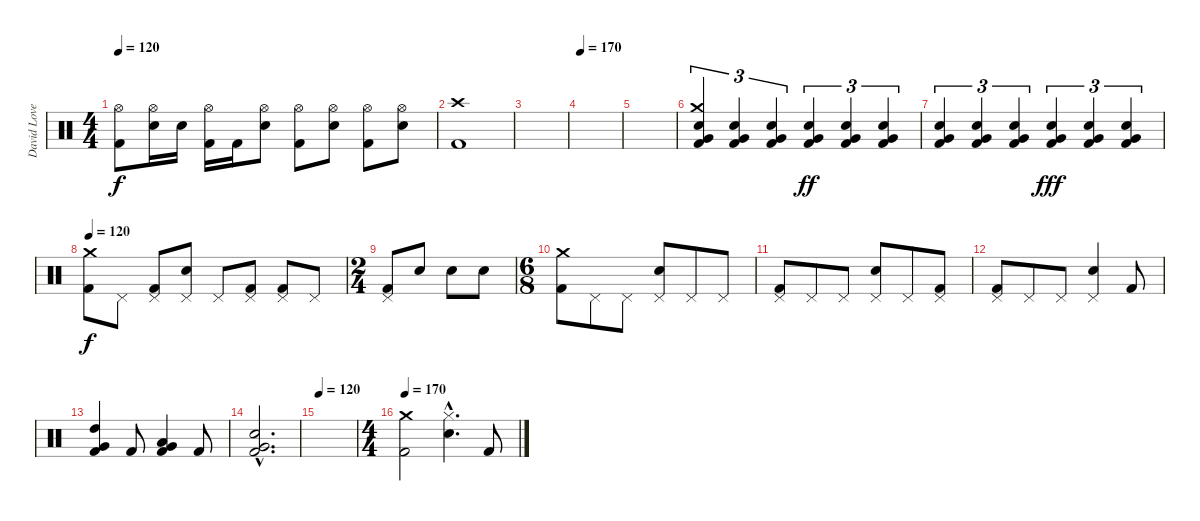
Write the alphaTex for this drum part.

\track ("David Lovering (Drums)" "David Love") {instrument percussion}
\staff {score}
\articulation defaults
\ts (4 4)
\tempo 120
\clef neutral
\ks c
("Hi-Hat (open)" "Kick (hit) 2").8{dy f} ("Hi-Hat (open)" "Electric Snare (hit)").16 "Electric Snare (hit)".16 ("Hi-Hat (open)" "Kick (hit) 2").16 "Kick (hit) 2".16 ("Hi-Hat (open)" "Electric Snare (hit)").8 ("Hi-Hat (open)" "Kick (hit) 2").8 ("Hi-Hat (open)" "Electric Snare (hit)").8 ("Hi-Hat (open)" "Kick (hit) 2").8 ("Hi-Hat (open)" "Electric Snare (hit)").8 |
("Crash high (hit)" "Kick (hit) 2").1 |
|
\tempo 170
|
|
("Crash medium (hit)" "Electric Snare (hit)" "Very Low Tom (hit)" "Kick (hit) 2").4{tu (3 2)} ("Electric Snare (hit)" "Very Low Tom (hit)" "Kick (hit) 2").4{tu (3 2)} ("Electric Snare (hit)" "Very Low Tom (hit)" "Kick (hit) 2").4{tu (3 2)} ("Electric Snare (hit)" "Very Low Tom (hit)" "Kick (hit) 2").4{tu (3 2) dy ff} ("Electric Snare (hit)" "Very Low Tom (hit)" "Kick (hit) 2").4{tu (3 2)} ("Electric Snare (hit)" "Very Low Tom (hit)" "Kick (hit) 2").4{tu (3 2)} |
("Electric Snare (hit)" "Very Low Tom (hit)" "Kick (hit) 2").4{tu (3 2)} ("Electric Snare (hit)" "Very Low Tom (hit)" "Kick (hit) 2").4{tu (3 2)} ("Electric Snare (hit)" "Very Low Tom (hit)" "Kick (hit) 2").4{tu (3 2)} ("Electric Snare (hit)" "Very Low Tom (hit)" "Kick (hit) 2").4{tu (3 2) dy fff} ("Electric Snare (hit)" "Very Low Tom (hit)" "Kick (hit) 2").4{tu (3 2)} ("Electric Snare (hit)" "Very Low Tom (hit)" "Kick (hit) 2").4{tu (3 2)} |
\tempo 120
("Crash medium (hit)" "Kick (hit) 2").8{dy f} "Pedal Hi-Hat (hit)".8 ("Pedal Hi-Hat (hit)" "Kick (hit) 2").8 ("Pedal Hi-Hat (hit)" "Electric Snare (hit)").8 "Pedal Hi-Hat (hit)".8 ("Pedal Hi-Hat (hit)" "Kick (hit) 2").8 ("Pedal Hi-Hat (hit)" "Kick (hit) 2").8 "Pedal Hi-Hat (hit)".8 |
\ts (2 4)
("Pedal Hi-Hat (hit)" "Kick (hit) 2").8 "Electric Snare (hit)".8 "Electric Snare (hit)".8 "Electric Snare (hit)".8 |
\ts (6 8)
("Crash medium (hit)" "Kick (hit) 2").8 "Pedal Hi-Hat (hit)".8 "Pedal Hi-Hat (hit)".8 ("Pedal Hi-Hat (hit)" "Electric Snare (hit)").8 "Pedal Hi-Hat (hit)".8 "Pedal Hi-Hat (hit)".8 |
("Pedal Hi-Hat (hit)" "Kick (hit) 2").8 "Pedal Hi-Hat (hit)".8 "Pedal Hi-Hat (hit)".8 ("Pedal Hi-Hat (hit)" "Electric Snare (hit)").8 "Pedal Hi-Hat (hit)".8 ("Pedal Hi-Hat (hit)" "Kick (hit) 2").8 |
("Pedal Hi-Hat (hit)" "Kick (hit) 2").8 "Pedal Hi-Hat (hit)".8 "Pedal Hi-Hat (hit)".8 ("Pedal Hi-Hat (hit)" "Electric Snare (hit)").4 "Kick (hit) 2".8 |
("High Tom (hit)" "Very Low Tom (hit)" "Kick (hit) 2").4 "Kick (hit) 2".8 ("Low Tom (hit)" "Very Low Tom (hit)" "Kick (hit) 2").4 "Kick (hit) 2".8 |
("Electric Snare (hit)"{hac} "Very Low Tom (hit)"{hac} "Kick (hit) 2"{hac}).2{d} |
\tempo 120
|
\ts (4 4)
\tempo 170
("Crash medium (hit)" "Kick (hit) 2").2 ("Hi-Hat (closed)"{hac} "Electric Snare (hit)"{hac}).4{d} "Kick (hit) 2".8
